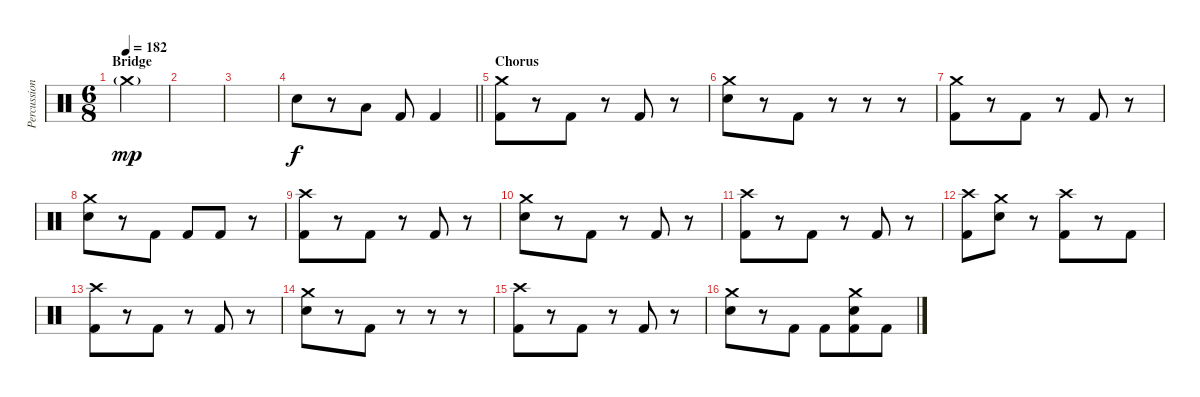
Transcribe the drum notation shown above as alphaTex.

\track ("Percussion" "Percussion") {instrument percussion}
\staff {score}
\articulation defaults
\ts (6 8)
\section ("" "Bridge")
\tempo 182
\clef neutral
\ks c "Crash medium (hit)"{g}.4{dy mp}
|
|
|
\barLineRight lightlight "Snare (hit) 2".8{dy f}
r.8 "Low Tom (hit)".8 "Kick (hit) 2".8 "Kick (hit) 2".4 |
\section ("" "Chorus")
("Kick (hit) 2" "Crash medium (hit)").8 r.8 "Kick (hit) 2".8 r.8 "Kick (hit) 2".8 r.8 |
("Snare (hit) 2" "Crash medium (hit)").8 r.8 "Kick (hit) 2".8 r.8 r.8 r.8 |
("Kick (hit) 2" "Crash medium (hit)").8 r.8 "Kick (hit) 2".8 r.8 "Kick (hit) 2".8 r.8 |
("Snare (hit) 2" "Crash medium (hit)").8 r.8 "Kick (hit) 2".8 "Kick (hit) 2".8 "Kick (hit) 2".8 r.8 |
("Kick (hit) 2" "Crash high (hit)").8 r.8 "Kick (hit) 2".8 r.8 "Kick (hit) 2".8 r.8 |
("Snare (hit) 2" "Crash medium (hit)").8 r.8 "Kick (hit) 2".8 r.8 "Kick (hit) 2".8 r.8 |
("Kick (hit) 2" "Crash high (hit)").8 r.8 "Kick (hit) 2".8 r.8 "Kick (hit) 2".8 r.8 |
("Kick (hit) 2" "Crash high (hit)").8 ("Snare (hit) 2" "Crash medium (hit)").8 r.8 ("Kick (hit) 2" "Crash high (hit)").8 r.8 "Kick (hit) 2".8 |
("Kick (hit) 2" "Crash high (hit)").8 r.8 "Kick (hit) 2".8 r.8 "Kick (hit) 2".8 r.8 |
("Snare (hit) 2" "Crash medium (hit)").8 r.8 "Kick (hit) 2".8 r.8 r.8 r.8 |
("Kick (hit) 2" "Crash high (hit)").8 r.8 "Kick (hit) 2".8 r.8 "Kick (hit) 2".8 r.8 |
("Snare (hit) 2" "Crash medium (hit)").8 r.8 "Kick (hit) 2".8 "Kick (hit) 2".8 ("Kick (hit) 2" "Snare (hit) 2" "Crash medium (hit)").8 "Kick (hit) 2".8
